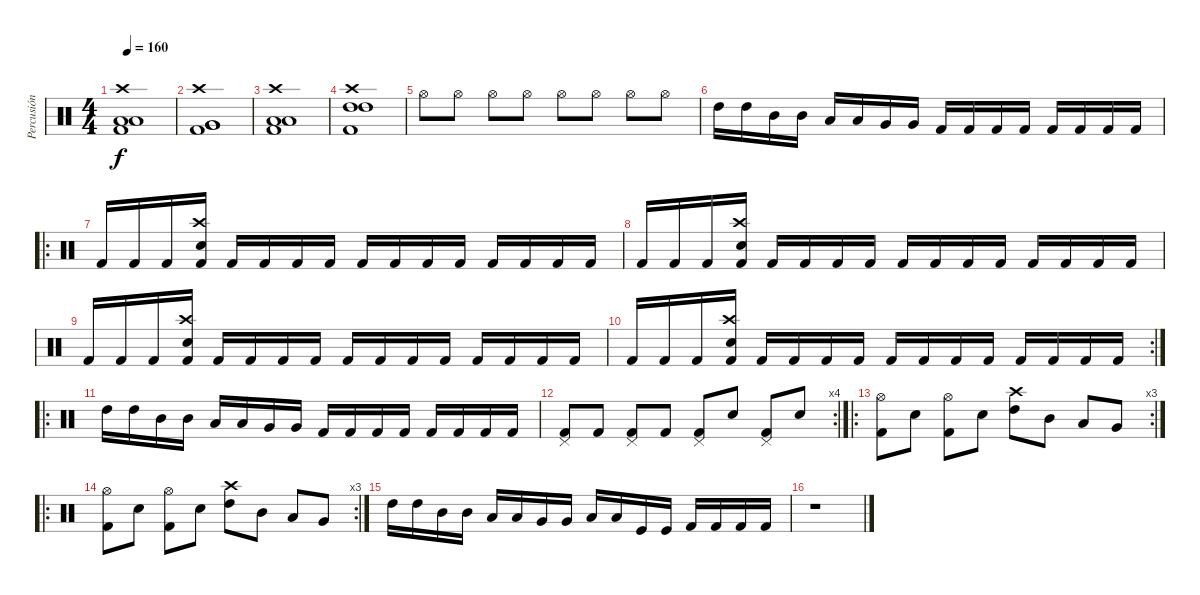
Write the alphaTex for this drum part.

\track ("Percusión" "Percusión") {instrument percussion}
\staff {score}
\articulation defaults
\ts (4 4)
\tempo 160
\clef neutral
\ks c
("Kick (hit) 2" "Crash high (hit)" "Low Floor Tom (hit)" "Low Floor Tom (hit)").1{dy f} |
("Kick (hit) 2" "Crash high (hit)" "Very Low Tom (hit)" "Very Low Tom (hit)").1 |
("Kick (hit) 2" "Crash high (hit)" "Low Tom (hit)" "Low Tom (hit)").1 |
("Kick (hit) 2" "Crash high (hit)" "High Tom (hit)" "High Tom (hit)").1 |
"Hi-Hat (open)".8 "Hi-Hat (open)".8 "Hi-Hat (open)".8 "Hi-Hat (open)".8 "Hi-Hat (open)".8 "Hi-Hat (open)".8 "Hi-Hat (open)".8 "Hi-Hat (open)".8 |
"High Tom (hit)".16 "High Tom (hit)".16 "Mid Tom (hit)".16 "Mid Tom (hit)".16 "Low Tom (hit)".16 "Low Tom (hit)".16 "Very Low Tom (hit)".16 "Very Low Tom (hit)".16 "Kick (hit) 2".16 "Kick (hit) 2".16 "Kick (hit) 2".16 "Kick (hit) 2".16 "Kick (hit) 2".16 "Kick (hit) 2".16 "Kick (hit) 2".16 "Kick (hit) 2".16 |
\ro "Kick (hit) 2".16 "Kick (hit) 2".16 "Kick (hit) 2".16
("Crash high (hit)" "Snare (hit) 2" "Kick (hit) 2").16 "Kick (hit) 2".16 "Kick (hit) 2".16 "Kick (hit) 2".16 "Kick (hit) 2".16 "Kick (hit) 2".16 "Kick (hit) 2".16 "Kick (hit) 2".16 "Kick (hit) 2".16 "Kick (hit) 2".16 "Kick (hit) 2".16 "Kick (hit) 2".16 "Kick (hit) 2".16 |
"Kick (hit) 2".16 "Kick (hit) 2".16 "Kick (hit) 2".16 ("Crash high (hit)" "Snare (hit) 2" "Kick (hit) 2").16 "Kick (hit) 2".16 "Kick (hit) 2".16 "Kick (hit) 2".16 "Kick (hit) 2".16 "Kick (hit) 2".16 "Kick (hit) 2".16 "Kick (hit) 2".16 "Kick (hit) 2".16 "Kick (hit) 2".16 "Kick (hit) 2".16 "Kick (hit) 2".16 "Kick (hit) 2".16 |
"Kick (hit) 2".16 "Kick (hit) 2".16 "Kick (hit) 2".16 ("Crash high (hit)" "Snare (hit) 2" "Kick (hit) 2").16 "Kick (hit) 2".16 "Kick (hit) 2".16 "Kick (hit) 2".16 "Kick (hit) 2".16 "Kick (hit) 2".16 "Kick (hit) 2".16 "Kick (hit) 2".16 "Kick (hit) 2".16 "Kick (hit) 2".16 "Kick (hit) 2".16 "Kick (hit) 2".16 "Kick (hit) 2".16 |
\rc 2 "Kick (hit) 2".16 "Kick (hit) 2".16 "Kick (hit) 2".16
("Crash high (hit)" "Snare (hit) 2" "Kick (hit) 2").16 "Kick (hit) 2".16 "Kick (hit) 2".16 "Kick (hit) 2".16 "Kick (hit) 2".16 "Kick (hit) 2".16 "Kick (hit) 2".16 "Kick (hit) 2".16 "Kick (hit) 2".16 "Kick (hit) 2".16 "Kick (hit) 2".16 "Kick (hit) 2".16 "Kick (hit) 2".16 |
\ro "High Tom (hit)".16 "High Tom (hit)".16 "Mid Tom (hit)".16 "Mid Tom (hit)".16 "Low Tom (hit)".16 "Low Tom (hit)".16 "Very Low Tom (hit)".16 "Very Low Tom (hit)".16 "Kick (hit) 2".16 "Kick (hit) 2".16 "Kick (hit) 2".16 "Kick (hit) 2".16 "Kick (hit) 2".16 "Kick (hit) 2".16 "Kick (hit) 2".16 "Kick (hit) 2".16
|
\rc 4
("Pedal Hi-Hat (hit)" "Kick (hit) 2").8 "Kick (hit) 2".8 ("Pedal Hi-Hat (hit)" "Kick (hit) 2").8 "Kick (hit) 2".8 ("Pedal Hi-Hat (hit)" "Kick (hit) 2").8 "Snare (hit) 2".8 ("Pedal Hi-Hat (hit)" "Kick (hit) 2").8 "Snare (hit) 2".8 |
\ro
\rc 3
("Hi-Hat (open)" "Kick (hit) 2").8 "Snare (hit) 2".8 ("Hi-Hat (open)" "Kick (hit) 2").8 "Snare (hit) 2".8 ("Crash high (hit)" "High Tom (hit)").8 "Mid Tom (hit)".8 "Low Tom (hit)".8 "Very Low Tom (hit)".8 |
\ro
\rc 3
("Hi-Hat (open)" "Kick (hit) 2").8 "Snare (hit) 2".8 ("Hi-Hat (open)" "Kick (hit) 2").8 "Snare (hit) 2".8 ("Crash high (hit)" "High Tom (hit)").8 "Mid Tom (hit)".8 "Low Tom (hit)".8 "Very Low Tom (hit)".8 |
"High Tom (hit)".16 "High Tom (hit)".16 "Mid Tom (hit)".16 "Mid Tom (hit)".16 "Low Tom (hit)".16 "Low Tom (hit)".16 "Very Low Tom (hit)".16 "Very Low Tom (hit)".16 "Low Floor Tom (hit)".16 "Low Floor Tom (hit)".16 "Kick (hit)".16 "Kick (hit)".16 "Kick (hit) 2".16 "Kick (hit) 2".16 "Kick (hit) 2".16 "Kick (hit) 2".16 |
r.1
